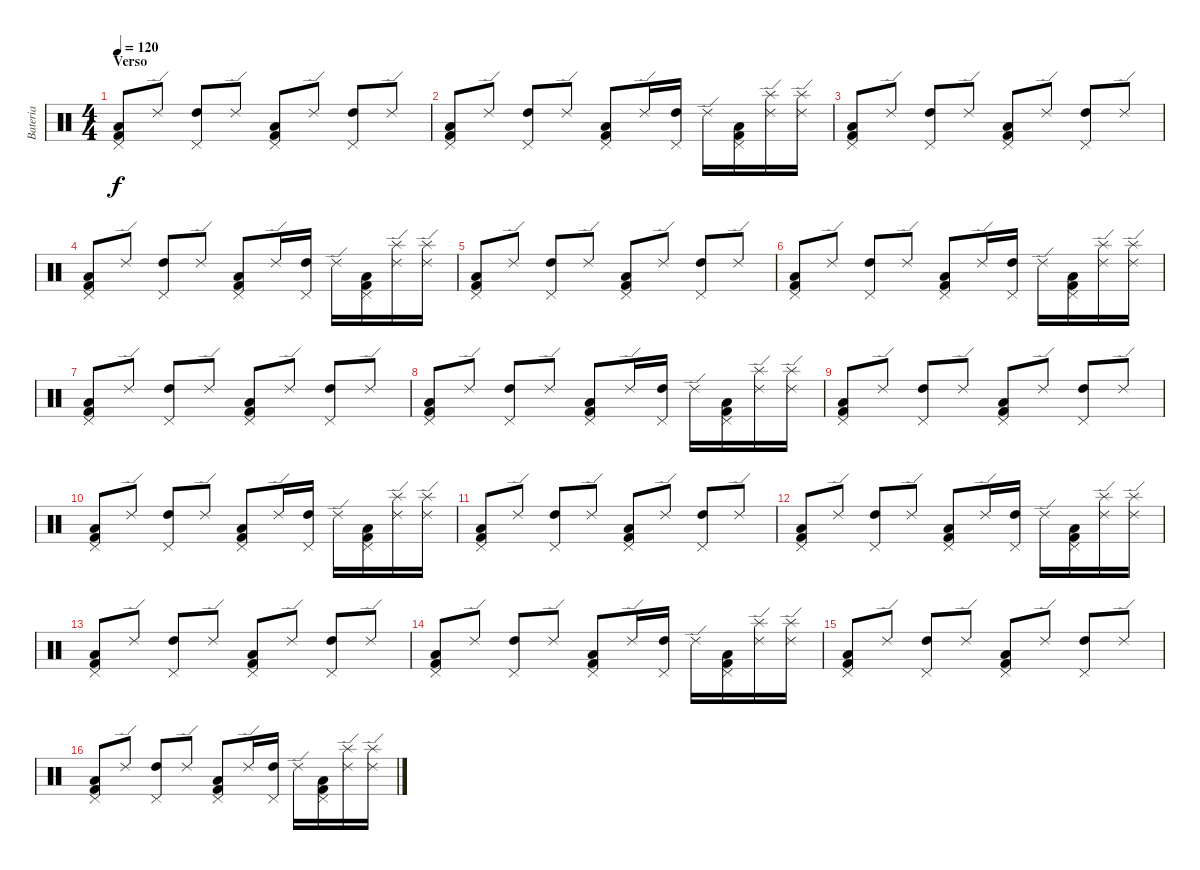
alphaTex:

\track ("Bateria" "Bateria") {instrument percussion}
\staff {score}
\articulation defaults
\ts (4 4)
\section ("" "Verso")
\tempo 120
\clef neutral
\ks c
("Low Tom (hit)" "Kick (hit) 2" "Pedal Hi-Hat (hit)").8{dy f} "Ride (edge) 2".8 ("High Tom (hit)" "Pedal Hi-Hat (hit)").8 "Ride (edge) 2".8 ("Low Tom (hit)" "Kick (hit) 2" "Pedal Hi-Hat (hit)").8 "Ride (edge) 2".8 ("High Tom (hit)" "Pedal Hi-Hat (hit)").8 "Ride (edge) 2".8 |
("Low Tom (hit)" "Kick (hit) 2" "Pedal Hi-Hat (hit)").8 "Ride (edge) 2".8 ("High Tom (hit)" "Pedal Hi-Hat (hit)").8 "Ride (edge) 2".8 ("Low Tom (hit)" "Kick (hit) 2" "Pedal Hi-Hat (hit)").8 "Ride (edge) 2".16 ("High Tom (hit)" "Pedal Hi-Hat (hit)").16 "Ride (edge) 2".16 ("Low Tom (hit)" "Kick (hit) 2" "Pedal Hi-Hat (hit)").16 ("Ride (edge) 2" "Splash (hit)").16 ("Ride (edge) 2" "Splash (hit)").16 |
("Low Tom (hit)" "Kick (hit) 2" "Pedal Hi-Hat (hit)").8 "Ride (edge) 2".8 ("High Tom (hit)" "Pedal Hi-Hat (hit)").8 "Ride (edge) 2".8 ("Low Tom (hit)" "Kick (hit) 2" "Pedal Hi-Hat (hit)").8 "Ride (edge) 2".8 ("High Tom (hit)" "Pedal Hi-Hat (hit)").8 "Ride (edge) 2".8 |
("Low Tom (hit)" "Kick (hit) 2" "Pedal Hi-Hat (hit)").8 "Ride (edge) 2".8 ("High Tom (hit)" "Pedal Hi-Hat (hit)").8 "Ride (edge) 2".8 ("Low Tom (hit)" "Kick (hit) 2" "Pedal Hi-Hat (hit)").8 "Ride (edge) 2".16 ("High Tom (hit)" "Pedal Hi-Hat (hit)").16 "Ride (edge) 2".16 ("Low Tom (hit)" "Kick (hit) 2" "Pedal Hi-Hat (hit)").16 ("Ride (edge) 2" "Splash (hit)").16 ("Ride (edge) 2" "Splash (hit)").16 |
("Low Tom (hit)" "Kick (hit) 2" "Pedal Hi-Hat (hit)").8 "Ride (edge) 2".8 ("High Tom (hit)" "Pedal Hi-Hat (hit)").8 "Ride (edge) 2".8 ("Low Tom (hit)" "Kick (hit) 2" "Pedal Hi-Hat (hit)").8 "Ride (edge) 2".8 ("High Tom (hit)" "Pedal Hi-Hat (hit)").8 "Ride (edge) 2".8 |
("Low Tom (hit)" "Kick (hit) 2" "Pedal Hi-Hat (hit)").8 "Ride (edge) 2".8 ("High Tom (hit)" "Pedal Hi-Hat (hit)").8 "Ride (edge) 2".8 ("Low Tom (hit)" "Kick (hit) 2" "Pedal Hi-Hat (hit)").8 "Ride (edge) 2".16 ("High Tom (hit)" "Pedal Hi-Hat (hit)").16 "Ride (edge) 2".16 ("Low Tom (hit)" "Kick (hit) 2" "Pedal Hi-Hat (hit)").16 ("Ride (edge) 2" "Splash (hit)").16 ("Ride (edge) 2" "Splash (hit)").16 |
("Low Tom (hit)" "Kick (hit) 2" "Pedal Hi-Hat (hit)").8 "Ride (edge) 2".8 ("High Tom (hit)" "Pedal Hi-Hat (hit)").8 "Ride (edge) 2".8 ("Low Tom (hit)" "Kick (hit) 2" "Pedal Hi-Hat (hit)").8 "Ride (edge) 2".8 ("High Tom (hit)" "Pedal Hi-Hat (hit)").8 "Ride (edge) 2".8 |
("Low Tom (hit)" "Kick (hit) 2" "Pedal Hi-Hat (hit)").8 "Ride (edge) 2".8 ("High Tom (hit)" "Pedal Hi-Hat (hit)").8 "Ride (edge) 2".8 ("Low Tom (hit)" "Kick (hit) 2" "Pedal Hi-Hat (hit)").8 "Ride (edge) 2".16 ("High Tom (hit)" "Pedal Hi-Hat (hit)").16 "Ride (edge) 2".16 ("Low Tom (hit)" "Kick (hit) 2" "Pedal Hi-Hat (hit)").16 ("Ride (edge) 2" "Splash (hit)").16 ("Ride (edge) 2" "Splash (hit)").16 |
("Low Tom (hit)" "Kick (hit) 2" "Pedal Hi-Hat (hit)").8 "Ride (edge) 2".8 ("High Tom (hit)" "Pedal Hi-Hat (hit)").8 "Ride (edge) 2".8 ("Low Tom (hit)" "Kick (hit) 2" "Pedal Hi-Hat (hit)").8 "Ride (edge) 2".8 ("High Tom (hit)" "Pedal Hi-Hat (hit)").8 "Ride (edge) 2".8 |
("Low Tom (hit)" "Kick (hit) 2" "Pedal Hi-Hat (hit)").8 "Ride (edge) 2".8 ("High Tom (hit)" "Pedal Hi-Hat (hit)").8 "Ride (edge) 2".8 ("Low Tom (hit)" "Kick (hit) 2" "Pedal Hi-Hat (hit)").8 "Ride (edge) 2".16 ("High Tom (hit)" "Pedal Hi-Hat (hit)").16 "Ride (edge) 2".16 ("Low Tom (hit)" "Kick (hit) 2" "Pedal Hi-Hat (hit)").16 ("Ride (edge) 2" "Splash (hit)").16 ("Ride (edge) 2" "Splash (hit)").16 |
("Low Tom (hit)" "Kick (hit) 2" "Pedal Hi-Hat (hit)").8 "Ride (edge) 2".8 ("High Tom (hit)" "Pedal Hi-Hat (hit)").8 "Ride (edge) 2".8 ("Low Tom (hit)" "Kick (hit) 2" "Pedal Hi-Hat (hit)").8 "Ride (edge) 2".8 ("High Tom (hit)" "Pedal Hi-Hat (hit)").8 "Ride (edge) 2".8 |
("Low Tom (hit)" "Kick (hit) 2" "Pedal Hi-Hat (hit)").8 "Ride (edge) 2".8 ("High Tom (hit)" "Pedal Hi-Hat (hit)").8 "Ride (edge) 2".8 ("Low Tom (hit)" "Kick (hit) 2" "Pedal Hi-Hat (hit)").8 "Ride (edge) 2".16 ("High Tom (hit)" "Pedal Hi-Hat (hit)").16 "Ride (edge) 2".16 ("Low Tom (hit)" "Kick (hit) 2" "Pedal Hi-Hat (hit)").16 ("Ride (edge) 2" "Splash (hit)").16 ("Ride (edge) 2" "Splash (hit)").16 |
("Low Tom (hit)" "Kick (hit) 2" "Pedal Hi-Hat (hit)").8 "Ride (edge) 2".8 ("High Tom (hit)" "Pedal Hi-Hat (hit)").8 "Ride (edge) 2".8 ("Low Tom (hit)" "Kick (hit) 2" "Pedal Hi-Hat (hit)").8 "Ride (edge) 2".8 ("High Tom (hit)" "Pedal Hi-Hat (hit)").8 "Ride (edge) 2".8 |
("Low Tom (hit)" "Kick (hit) 2" "Pedal Hi-Hat (hit)").8 "Ride (edge) 2".8 ("High Tom (hit)" "Pedal Hi-Hat (hit)").8 "Ride (edge) 2".8 ("Low Tom (hit)" "Kick (hit) 2" "Pedal Hi-Hat (hit)").8 "Ride (edge) 2".16 ("High Tom (hit)" "Pedal Hi-Hat (hit)").16 "Ride (edge) 2".16 ("Low Tom (hit)" "Kick (hit) 2" "Pedal Hi-Hat (hit)").16 ("Ride (edge) 2" "Splash (hit)").16 ("Ride (edge) 2" "Splash (hit)").16 |
("Low Tom (hit)" "Kick (hit) 2" "Pedal Hi-Hat (hit)").8 "Ride (edge) 2".8 ("High Tom (hit)" "Pedal Hi-Hat (hit)").8 "Ride (edge) 2".8 ("Low Tom (hit)" "Kick (hit) 2" "Pedal Hi-Hat (hit)").8 "Ride (edge) 2".8 ("High Tom (hit)" "Pedal Hi-Hat (hit)").8 "Ride (edge) 2".8 |
("Low Tom (hit)" "Kick (hit) 2" "Pedal Hi-Hat (hit)").8 "Ride (edge) 2".8 ("High Tom (hit)" "Pedal Hi-Hat (hit)").8 "Ride (edge) 2".8 ("Low Tom (hit)" "Kick (hit) 2" "Pedal Hi-Hat (hit)").8 "Ride (edge) 2".16 ("High Tom (hit)" "Pedal Hi-Hat (hit)").16 "Ride (edge) 2".16 ("Low Tom (hit)" "Kick (hit) 2" "Pedal Hi-Hat (hit)").16 ("Ride (edge) 2" "Splash (hit)").16 ("Ride (edge) 2" "Splash (hit)").16
